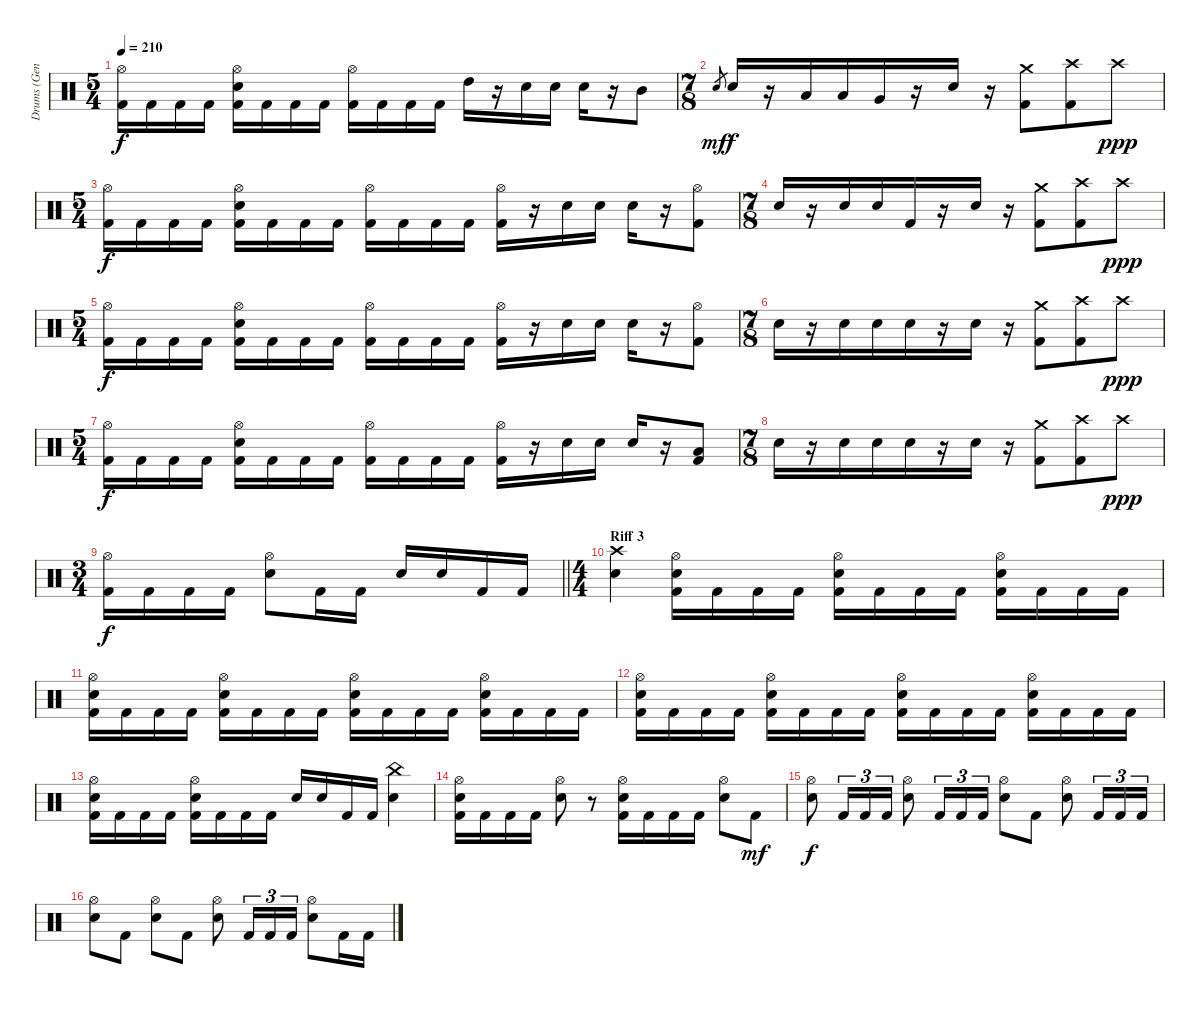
\track ("Drums (Gene Hoglan)" "Drums (Gen") {instrument percussion}
\staff {score}
\articulation defaults
\ts (5 4)
\tempo 210
\clef neutral
\ks c
("Hi-Hat (open)" "Kick (hit) 2").16{dy f} "Kick (hit) 2".16 "Kick (hit) 2".16 "Kick (hit) 2".16 ("Hi-Hat (open)" "Snare (hit) 2" "Kick (hit) 2").16 "Kick (hit) 2".16 "Kick (hit) 2".16 "Kick (hit) 2".16 ("Hi-Hat (open)" "Kick (hit) 2").16 "Kick (hit) 2".16 "Kick (hit) 2".16 "Kick (hit) 2".16 "High Tom (hit)".16 r.16 "Snare (hit) 2".16 "Snare (hit) 2".16 "Snare (hit) 2".16 r.16 "Mid Tom (hit)".8 |
\ts (7 8)
"Snare (hit) 2".8{gr dy mf} "Snare (hit) 2".16{dy f} r.16 "Low Tom (hit)".16 "Low Tom (hit)".16 "Very Low Tom (hit)".16 r.16 "Snare (hit) 2".16 r.16 ("Crash medium (hit)" "Kick (hit) 2").8 ("Crash high (hit)" "Kick (hit) 2").8 "Crash high (hit)".8{dy ppp} |
\ts (5 4)
("Hi-Hat (open)" "Kick (hit) 2").16{dy f} "Kick (hit) 2".16 "Kick (hit) 2".16 "Kick (hit) 2".16 ("Hi-Hat (open)" "Snare (hit) 2" "Kick (hit) 2").16 "Kick (hit) 2".16 "Kick (hit) 2".16 "Kick (hit) 2".16 ("Hi-Hat (open)" "Kick (hit) 2").16 "Kick (hit) 2".16 "Kick (hit) 2".16 "Kick (hit) 2".16 ("Hi-Hat (open)" "Kick (hit) 2").16 r.16 "Snare (hit) 2".16 "Snare (hit) 2".16 "Snare (hit) 2".16 r.16 ("Hi-Hat (open)" "Kick (hit) 2").8 |
\ts (7 8)
"Snare (hit) 2".16 r.16 "Snare (hit) 2".16 "Snare (hit) 2".16 "Kick (hit) 2".16 r.16 "Snare (hit) 2".16 r.16 ("Crash medium (hit)" "Kick (hit) 2").8 ("Crash high (hit)" "Kick (hit) 2").8 "Crash high (hit)".8{dy ppp} |
\ts (5 4)
("Hi-Hat (open)" "Kick (hit) 2").16{dy f} "Kick (hit) 2".16 "Kick (hit) 2".16 "Kick (hit) 2".16 ("Hi-Hat (open)" "Snare (hit) 2" "Kick (hit) 2").16 "Kick (hit) 2".16 "Kick (hit) 2".16 "Kick (hit) 2".16 ("Hi-Hat (open)" "Kick (hit) 2").16 "Kick (hit) 2".16 "Kick (hit) 2".16 "Kick (hit) 2".16 ("Hi-Hat (open)" "Kick (hit) 2").16 r.16 "Snare (hit) 2".16 "Snare (hit) 2".16 "Snare (hit) 2".16 r.16 ("Hi-Hat (open)" "Kick (hit) 2").8 |
\ts (7 8)
"Snare (hit) 2".16 r.16 "Snare (hit) 2".16 "Snare (hit) 2".16 "Snare (hit) 2".16 r.16 "Snare (hit) 2".16 r.16 ("Crash medium (hit)" "Kick (hit) 2").8 ("Crash high (hit)" "Kick (hit) 2").8 "Crash high (hit)".8{dy ppp} |
\ts (5 4)
("Hi-Hat (open)" "Kick (hit) 2").16{dy f} "Kick (hit) 2".16 "Kick (hit) 2".16 "Kick (hit) 2".16 ("Hi-Hat (open)" "Snare (hit) 2" "Kick (hit) 2").16 "Kick (hit) 2".16 "Kick (hit) 2".16 "Kick (hit) 2".16 ("Hi-Hat (open)" "Kick (hit) 2").16 "Kick (hit) 2".16 "Kick (hit) 2".16 "Kick (hit) 2".16 ("Hi-Hat (open)" "Kick (hit) 2").16 r.16 "Snare (hit) 2".16 "Snare (hit) 2".16 "Snare (hit) 2".16 r.16 ("Low Floor Tom (hit)" "Kick (hit) 2").8 |
\ts (7 8)
"Snare (hit) 2".16 r.16 "Snare (hit) 2".16 "Snare (hit) 2".16 "Snare (hit) 2".16 r.16 "Snare (hit) 2".16 r.16 ("Crash medium (hit)" "Kick (hit) 2").8 ("Crash high (hit)" "Kick (hit) 2").8 "Crash high (hit)".8{dy ppp} |
\ts (3 4)
\barLineRight lightlight
("Hi-Hat (open)" "Kick (hit) 2").16{dy f} "Kick (hit) 2".16 "Kick (hit) 2".16 "Kick (hit) 2".16 ("Hi-Hat (open)" "Snare (hit) 2").8 "Kick (hit) 2".16 "Kick (hit) 2".16 "Snare (hit) 2".16 "Snare (hit) 2".16 "Kick (hit) 2".16 "Kick (hit) 2".16 |
\ts (4 4)
\section ("" "Riff 3")
("Crash high (hit)" "Snare (hit) 2").4 ("Hi-Hat (open)" "Snare (hit) 2" "Kick (hit) 2").16 "Kick (hit) 2".16 "Kick (hit) 2".16 "Kick (hit) 2".16 ("Hi-Hat (open)" "Snare (hit) 2" "Kick (hit) 2").16 "Kick (hit) 2".16 "Kick (hit) 2".16 "Kick (hit) 2".16 ("Hi-Hat (open)" "Snare (hit) 2" "Kick (hit) 2").16 "Kick (hit) 2".16 "Kick (hit) 2".16 "Kick (hit) 2".16 |
("Hi-Hat (open)" "Snare (hit) 2" "Kick (hit) 2").16 "Kick (hit) 2".16 "Kick (hit) 2".16 "Kick (hit) 2".16 ("Hi-Hat (open)" "Snare (hit) 2" "Kick (hit) 2").16 "Kick (hit) 2".16 "Kick (hit) 2".16 "Kick (hit) 2".16 ("Hi-Hat (open)" "Snare (hit) 2" "Kick (hit) 2").16 "Kick (hit) 2".16 "Kick (hit) 2".16 "Kick (hit) 2".16 ("Hi-Hat (open)" "Snare (hit) 2" "Kick (hit) 2").16 "Kick (hit) 2".16 "Kick (hit) 2".16 "Kick (hit) 2".16 |
("Hi-Hat (open)" "Snare (hit) 2" "Kick (hit) 2").16 "Kick (hit) 2".16 "Kick (hit) 2".16 "Kick (hit) 2".16 ("Hi-Hat (open)" "Snare (hit) 2" "Kick (hit) 2").16 "Kick (hit) 2".16 "Kick (hit) 2".16 "Kick (hit) 2".16 ("Hi-Hat (open)" "Snare (hit) 2" "Kick (hit) 2").16 "Kick (hit) 2".16 "Kick (hit) 2".16 "Kick (hit) 2".16 ("Hi-Hat (open)" "Snare (hit) 2" "Kick (hit) 2").16 "Kick (hit) 2".16 "Kick (hit) 2".16 "Kick (hit) 2".16 |
("Hi-Hat (open)" "Snare (hit) 2" "Kick (hit) 2").16 "Kick (hit) 2".16 "Kick (hit) 2".16 "Kick (hit) 2".16 ("Hi-Hat (open)" "Snare (hit) 2" "Kick (hit) 2").16 "Kick (hit) 2".16 "Kick (hit) 2".16 "Kick (hit) 2".16 "Snare (hit) 2".16 "Snare (hit) 2".16 "Kick (hit) 2".16 "Kick (hit) 2".16 ("China (hit)" "Snare (hit) 2").4 |
("Hi-Hat (open)" "Snare (hit) 2" "Kick (hit) 2").16 "Kick (hit) 2".16 "Kick (hit) 2".16 "Kick (hit) 2".16 ("Hi-Hat (open)" "Snare (hit) 2").8 r.8 ("Hi-Hat (open)" "Snare (hit) 2" "Kick (hit) 2").16 "Kick (hit) 2".16 "Kick (hit) 2".16 "Kick (hit) 2".16 ("Hi-Hat (open)" "Snare (hit) 2").8 "Kick (hit) 2".8{dy mf} |
("Hi-Hat (open)" "Snare (hit) 2").8{dy f} "Kick (hit) 2".16{tu (3 2)} "Kick (hit) 2".16{tu (3 2)} "Kick (hit) 2".16{tu (3 2)} ("Hi-Hat (open)" "Snare (hit) 2").8 "Kick (hit) 2".16{tu (3 2)} "Kick (hit) 2".16{tu (3 2)} "Kick (hit) 2".16{tu (3 2)} ("Hi-Hat (open)" "Snare (hit) 2").8 "Kick (hit) 2".8 ("Hi-Hat (open)" "Snare (hit) 2").8 "Kick (hit) 2".16{tu (3 2)} "Kick (hit) 2".16{tu (3 2)} "Kick (hit) 2".16{tu (3 2)} |
("Hi-Hat (open)" "Snare (hit) 2").8 "Kick (hit) 2".8 ("Hi-Hat (open)" "Snare (hit) 2").8 "Kick (hit) 2".8 ("Hi-Hat (open)" "Snare (hit) 2").8 "Kick (hit) 2".16{tu (3 2)} "Kick (hit) 2".16{tu (3 2)} "Kick (hit) 2".16{tu (3 2)} ("Hi-Hat (open)" "Snare (hit) 2").8 "Kick (hit) 2".16 "Kick (hit) 2".16
